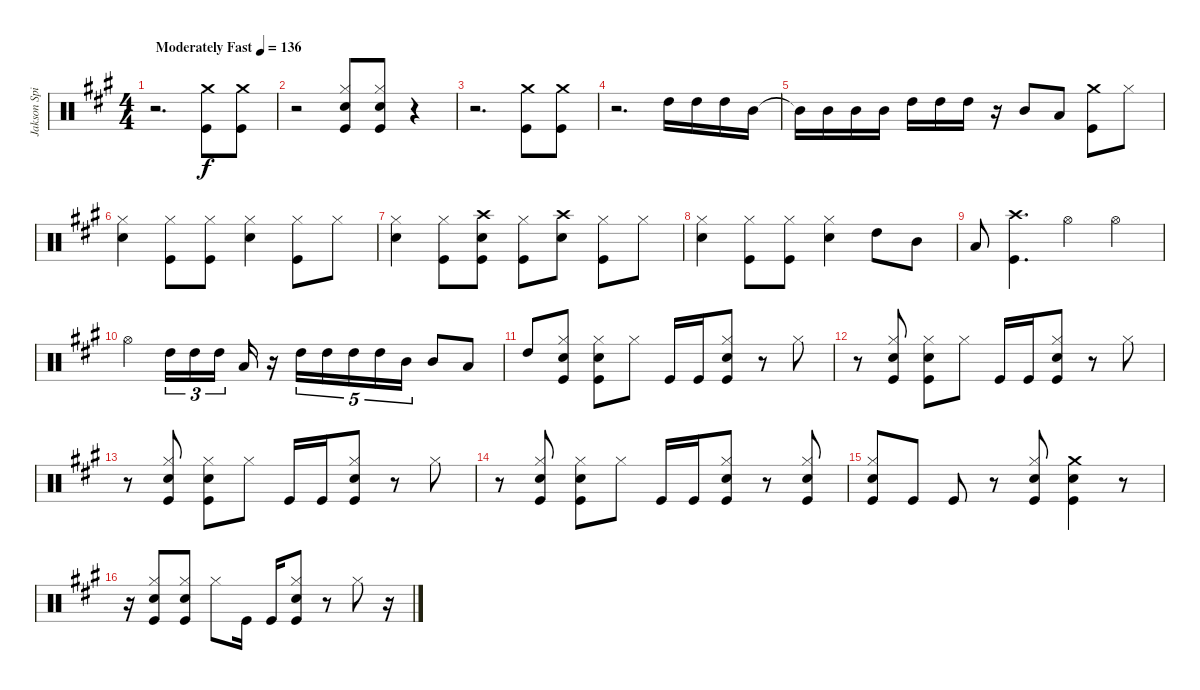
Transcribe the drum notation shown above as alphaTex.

\track ("Jakson Spires Drums" "Jakson Spi") {instrument percussion}
\staff {score}
\articulation defaults
\ts (4 4)
\tempo (136 "Moderately Fast")
\clef neutral
\ks a
r.2{d dy f} ("Crash medium (hit)" "Kick (hit)").8 ("Crash medium (hit)" "Kick (hit)").8 |
r.2 ("Hi-Hat (closed)" "Snare (hit) 2" "Kick (hit)").8 ("Hi-Hat (closed)" "Snare (hit) 2" "Kick (hit)").8 r.4 |
r.2{d} ("Crash medium (hit)" "Kick (hit)").8 ("Crash medium (hit)" "Kick (hit)").8 |
r.2{d} "High Tom (hit)".16 "High Tom (hit)".16 "High Tom (hit)".16 "Mid Tom (hit)".16 |
"Mid Tom (hit)"{t}.16 "Mid Tom (hit)".16 "Mid Tom (hit)".16 "Mid Tom (hit)".16 "High Tom (hit)".16 "High Tom (hit)".16 "High Tom (hit)".16 r.16 "Mid Tom (hit)".8 "Low Tom (hit)".8 ("Crash medium (hit)" "Kick (hit)").8 "Hi-Hat (closed)".8 |
("Hi-Hat (closed)" "Snare (hit) 2").4 ("Hi-Hat (closed)" "Kick (hit)").8 ("Hi-Hat (closed)" "Kick (hit)").8 ("Hi-Hat (closed)" "Snare (hit) 2").4 ("Hi-Hat (closed)" "Kick (hit)").8 "Hi-Hat (closed)".8 |
("Hi-Hat (closed)" "Snare (hit) 2").4 ("Hi-Hat (closed)" "Kick (hit)").8 ("Crash high (hit)" "Snare (hit) 2" "Kick (hit)").8 ("Hi-Hat (closed)" "Kick (hit)").8 ("Crash high (hit)" "Snare (hit) 2").8 ("Hi-Hat (closed)" "Kick (hit)").8 "Hi-Hat (closed)".8 |
("Hi-Hat (closed)" "Snare (hit) 2").4 ("Hi-Hat (closed)" "Kick (hit)").8 ("Hi-Hat (closed)" "Kick (hit)").8 ("Hi-Hat (closed)" "Snare (hit) 2").4 "High Tom (hit)".8 "Mid Tom (hit)".8 |
"Low Tom (hit)".8 ("Crash high (hit)" "Kick (hit)").4{d} "Hi-Hat (open)".4 "Hi-Hat (open)".4 |
"Hi-Hat (open)".4 "High Tom (hit)".16{tu (3 2)} "High Tom (hit)".16{tu (3 2)} "High Tom (hit)".16{tu (3 2) beam splitsecondary} "Low Tom (hit)".16 r.16 "High Tom (hit)".16{tu (5 4)} "High Tom (hit)".16{tu (5 4)} "High Tom (hit)".16{tu (5 4)} "High Tom (hit)".16{tu (5 4)} "Mid Tom (hit)".16{tu (5 4)} "Mid Tom (hit)".8 "Low Tom (hit)".8 |
"High Tom (hit)".8 ("Hi-Hat (closed)" "Snare (hit) 2" "Kick (hit)").8 ("Hi-Hat (closed)" "Snare (hit) 2" "Kick (hit)").8 "Hi-Hat (closed)".8 "Kick (hit)".16 "Kick (hit)".16 ("Hi-Hat (closed)" "Snare (hit) 2" "Kick (hit)").8 r.8 "Hi-Hat (closed)".8 |
r.8 ("Hi-Hat (closed)" "Snare (hit) 2" "Kick (hit)").8 ("Hi-Hat (closed)" "Snare (hit) 2" "Kick (hit)").8 "Hi-Hat (closed)".8 "Kick (hit)".16 "Kick (hit)".16 ("Hi-Hat (closed)" "Snare (hit) 2" "Kick (hit)").8 r.8 "Hi-Hat (closed)".8 |
r.8 ("Hi-Hat (closed)" "Snare (hit) 2" "Kick (hit)").8 ("Hi-Hat (closed)" "Snare (hit) 2" "Kick (hit)").8 "Hi-Hat (closed)".8 "Kick (hit)".16 "Kick (hit)".16 ("Hi-Hat (closed)" "Snare (hit) 2" "Kick (hit)").8 r.8 "Hi-Hat (closed)".8 |
r.8 ("Hi-Hat (closed)" "Snare (hit) 2" "Kick (hit)").8 ("Hi-Hat (closed)" "Snare (hit) 2" "Kick (hit)").8 "Hi-Hat (closed)".8 "Kick (hit)".16 "Kick (hit)".16 ("Hi-Hat (closed)" "Snare (hit) 2" "Kick (hit)").8 r.8 ("Hi-Hat (closed)" "Snare (hit) 2" "Kick (hit)").8 |
("Hi-Hat (closed)" "Snare (hit) 2" "Kick (hit)").8 "Kick (hit)".8 "Kick (hit)".8 r.8 ("Hi-Hat (closed)" "Snare (hit) 2" "Kick (hit)").8 ("Crash medium (hit)" "Snare (hit) 2" "Kick (hit)").4 r.8 |
r.16 ("Hi-Hat (closed)" "Snare (hit) 2" "Kick (hit)").8 ("Hi-Hat (closed)" "Snare (hit) 2" "Kick (hit)").8 "Hi-Hat (closed)".8 "Kick (hit)".16 "Kick (hit)".16 ("Hi-Hat (closed)" "Snare (hit) 2" "Kick (hit)").8 r.8 "Hi-Hat (closed)".8 r.16
